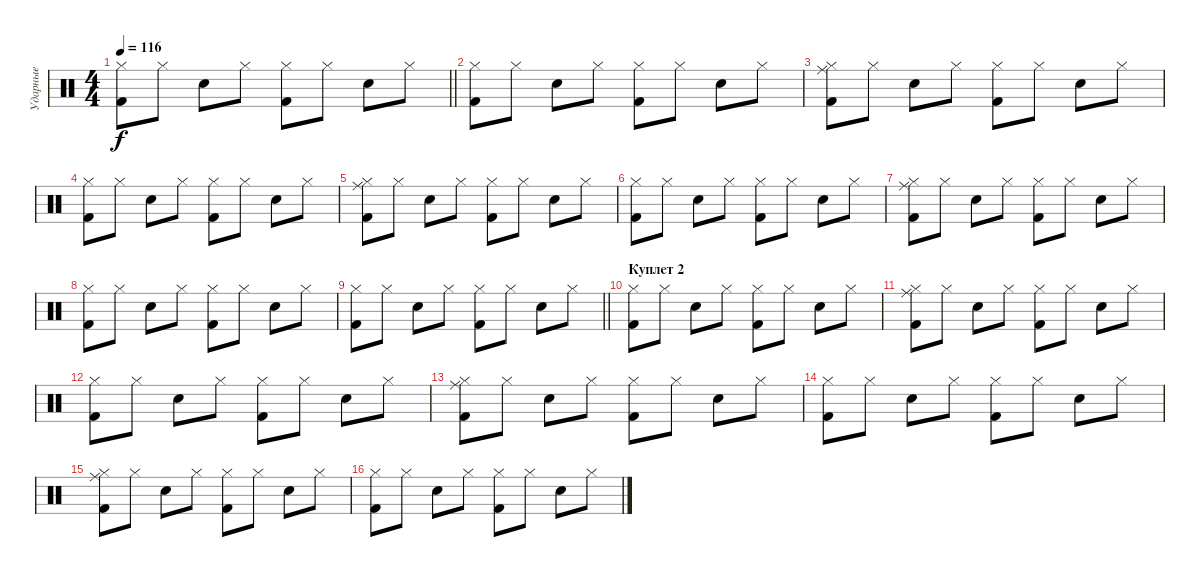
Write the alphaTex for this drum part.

\track ("Ударные" "Ударные") {instrument percussion}
\staff {score}
\articulation defaults
\ts (4 4)
\tempo 116
\clef neutral
\barLineRight lightlight
\ks c
("Hi-Hat (closed)" "Kick (hit) 2").8{dy f} "Hi-Hat (closed)".8 "Snare (hit) 2".8 "Hi-Hat (closed)".8 ("Hi-Hat (closed)" "Kick (hit) 2").8 "Hi-Hat (closed)".8 "Snare (hit) 2".8 "Hi-Hat (closed)".8 |
("Hi-Hat (closed)" "Kick (hit) 2").8 "Hi-Hat (closed)".8 "Snare (hit) 2".8 "Hi-Hat (closed)".8 ("Hi-Hat (closed)" "Kick (hit) 2").8 "Hi-Hat (closed)".8 "Snare (hit) 2".8 "Hi-Hat (closed)".8 |
("Hi-Hat (closed)" "Kick (hit) 2" "Ride (middle)").8 "Hi-Hat (closed)".8 "Snare (hit) 2".8 "Hi-Hat (closed)".8 ("Hi-Hat (closed)" "Kick (hit) 2").8 "Hi-Hat (closed)".8 "Snare (hit) 2".8 "Hi-Hat (closed)".8 |
("Hi-Hat (closed)" "Kick (hit) 2").8 "Hi-Hat (closed)".8 "Snare (hit) 2".8 "Hi-Hat (closed)".8 ("Hi-Hat (closed)" "Kick (hit) 2").8 "Hi-Hat (closed)".8 "Snare (hit) 2".8 "Hi-Hat (closed)".8 |
("Hi-Hat (closed)" "Kick (hit) 2" "Ride (middle)").8 "Hi-Hat (closed)".8 "Snare (hit) 2".8 "Hi-Hat (closed)".8 ("Hi-Hat (closed)" "Kick (hit) 2").8 "Hi-Hat (closed)".8 "Snare (hit) 2".8 "Hi-Hat (closed)".8 |
("Hi-Hat (closed)" "Kick (hit) 2").8 "Hi-Hat (closed)".8 "Snare (hit) 2".8 "Hi-Hat (closed)".8 ("Hi-Hat (closed)" "Kick (hit) 2").8 "Hi-Hat (closed)".8 "Snare (hit) 2".8 "Hi-Hat (closed)".8 |
("Hi-Hat (closed)" "Kick (hit) 2" "Ride (middle)").8 "Hi-Hat (closed)".8 "Snare (hit) 2".8 "Hi-Hat (closed)".8 ("Hi-Hat (closed)" "Kick (hit) 2").8 "Hi-Hat (closed)".8 "Snare (hit) 2".8 "Hi-Hat (closed)".8 |
("Hi-Hat (closed)" "Kick (hit) 2").8 "Hi-Hat (closed)".8 "Snare (hit) 2".8 "Hi-Hat (closed)".8 ("Hi-Hat (closed)" "Kick (hit) 2").8 "Hi-Hat (closed)".8 "Snare (hit) 2".8 "Hi-Hat (closed)".8 |
\barLineRight lightlight
("Hi-Hat (closed)" "Kick (hit) 2").8 "Hi-Hat (closed)".8 "Snare (hit) 2".8 "Hi-Hat (closed)".8 ("Hi-Hat (closed)" "Kick (hit) 2").8 "Hi-Hat (closed)".8 "Snare (hit) 2".8 "Hi-Hat (closed)".8 |
\section ("" "Куплет 2")
("Hi-Hat (closed)" "Kick (hit) 2").8 "Hi-Hat (closed)".8 "Snare (hit) 2".8 "Hi-Hat (closed)".8 ("Hi-Hat (closed)" "Kick (hit) 2").8 "Hi-Hat (closed)".8 "Snare (hit) 2".8 "Hi-Hat (closed)".8 |
("Hi-Hat (closed)" "Kick (hit) 2" "Ride (middle)").8 "Hi-Hat (closed)".8 "Snare (hit) 2".8 "Hi-Hat (closed)".8 ("Hi-Hat (closed)" "Kick (hit) 2").8 "Hi-Hat (closed)".8 "Snare (hit) 2".8 "Hi-Hat (closed)".8 |
("Hi-Hat (closed)" "Kick (hit) 2").8 "Hi-Hat (closed)".8 "Snare (hit) 2".8 "Hi-Hat (closed)".8 ("Hi-Hat (closed)" "Kick (hit) 2").8 "Hi-Hat (closed)".8 "Snare (hit) 2".8 "Hi-Hat (closed)".8 |
("Hi-Hat (closed)" "Kick (hit) 2" "Ride (middle)").8 "Hi-Hat (closed)".8 "Snare (hit) 2".8 "Hi-Hat (closed)".8 ("Hi-Hat (closed)" "Kick (hit) 2").8 "Hi-Hat (closed)".8 "Snare (hit) 2".8 "Hi-Hat (closed)".8 |
("Hi-Hat (closed)" "Kick (hit) 2").8 "Hi-Hat (closed)".8 "Snare (hit) 2".8 "Hi-Hat (closed)".8 ("Hi-Hat (closed)" "Kick (hit) 2").8 "Hi-Hat (closed)".8 "Snare (hit) 2".8 "Hi-Hat (closed)".8 |
("Hi-Hat (closed)" "Kick (hit) 2" "Ride (middle)").8 "Hi-Hat (closed)".8 "Snare (hit) 2".8 "Hi-Hat (closed)".8 ("Hi-Hat (closed)" "Kick (hit) 2").8 "Hi-Hat (closed)".8 "Snare (hit) 2".8 "Hi-Hat (closed)".8 |
("Hi-Hat (closed)" "Kick (hit) 2").8 "Hi-Hat (closed)".8 "Snare (hit) 2".8 "Hi-Hat (closed)".8 ("Hi-Hat (closed)" "Kick (hit) 2").8 "Hi-Hat (closed)".8 "Snare (hit) 2".8 "Hi-Hat (closed)".8
